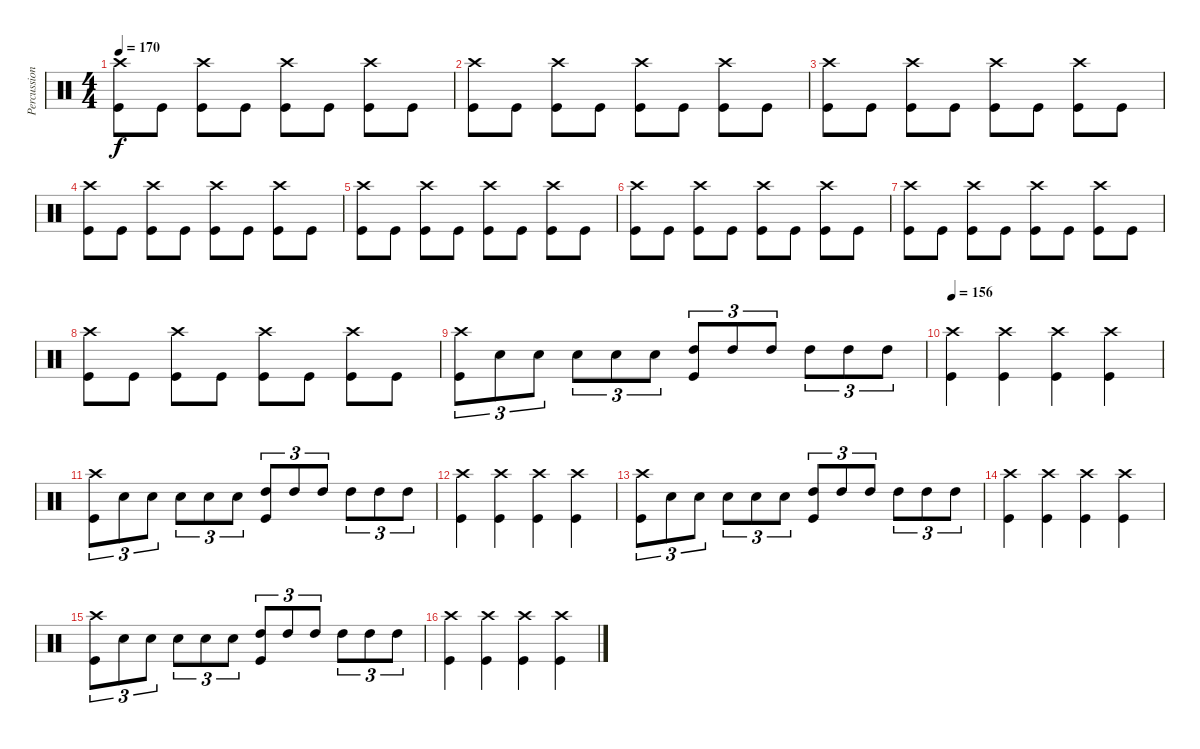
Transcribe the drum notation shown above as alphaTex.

\track ("Percussion" "Percussion") {instrument percussion}
\staff {score}
\articulation defaults
\ts (4 4)
\tempo 170
\clef neutral
\ks c
("Crash high (hit)" "Kick (hit)").8{dy f} "Kick (hit)".8 ("Crash high (hit)" "Kick (hit)").8 "Kick (hit)".8 ("Crash high (hit)" "Kick (hit)").8 "Kick (hit)".8 ("Crash high (hit)" "Kick (hit)").8 "Kick (hit)".8 |
("Crash high (hit)" "Kick (hit)").8 "Kick (hit)".8 ("Crash high (hit)" "Kick (hit)").8 "Kick (hit)".8 ("Crash high (hit)" "Kick (hit)").8 "Kick (hit)".8 ("Crash high (hit)" "Kick (hit)").8 "Kick (hit)".8 |
("Crash high (hit)" "Kick (hit)").8 "Kick (hit)".8 ("Crash high (hit)" "Kick (hit)").8 "Kick (hit)".8 ("Crash high (hit)" "Kick (hit)").8 "Kick (hit)".8 ("Crash high (hit)" "Kick (hit)").8 "Kick (hit)".8 |
("Crash high (hit)" "Kick (hit)").8 "Kick (hit)".8 ("Crash high (hit)" "Kick (hit)").8 "Kick (hit)".8 ("Crash high (hit)" "Kick (hit)").8 "Kick (hit)".8 ("Crash high (hit)" "Kick (hit)").8 "Kick (hit)".8 |
("Crash high (hit)" "Kick (hit)").8 "Kick (hit)".8 ("Crash high (hit)" "Kick (hit)").8 "Kick (hit)".8 ("Crash high (hit)" "Kick (hit)").8 "Kick (hit)".8 ("Crash high (hit)" "Kick (hit)").8 "Kick (hit)".8 |
("Crash high (hit)" "Kick (hit)").8 "Kick (hit)".8 ("Crash high (hit)" "Kick (hit)").8 "Kick (hit)".8 ("Crash high (hit)" "Kick (hit)").8 "Kick (hit)".8 ("Crash high (hit)" "Kick (hit)").8 "Kick (hit)".8 |
("Crash high (hit)" "Kick (hit)").8 "Kick (hit)".8 ("Crash high (hit)" "Kick (hit)").8 "Kick (hit)".8 ("Crash high (hit)" "Kick (hit)").8 "Kick (hit)".8 ("Crash high (hit)" "Kick (hit)").8 "Kick (hit)".8 |
("Crash high (hit)" "Kick (hit)").8 "Kick (hit)".8 ("Crash high (hit)" "Kick (hit)").8 "Kick (hit)".8 ("Crash high (hit)" "Kick (hit)").8 "Kick (hit)".8 ("Crash high (hit)" "Kick (hit)").8 "Kick (hit)".8 |
("Crash high (hit)" "Kick (hit)").8{tu (3 2)} "Snare (hit) 2".8{tu (3 2)} "Snare (hit) 2".8{tu (3 2)} "Snare (hit) 2".8{tu (3 2)} "Snare (hit) 2".8{tu (3 2)} "Snare (hit) 2".8{tu (3 2)} ("High Tom (hit)" "Kick (hit)").8{tu (3 2)} "High Tom (hit)".8{tu (3 2)} "High Tom (hit)".8{tu (3 2)} "High Tom (hit)".8{tu (3 2)} "High Tom (hit)".8{tu (3 2)} "High Tom (hit)".8{tu (3 2)} |
\tempo 156
("Crash high (hit)" "Kick (hit)").4 ("Crash high (hit)" "Kick (hit)").4 ("Crash high (hit)" "Kick (hit)").4 ("Crash high (hit)" "Kick (hit)").4 |
("Crash high (hit)" "Kick (hit)").8{tu (3 2)} "Snare (hit) 2".8{tu (3 2)} "Snare (hit) 2".8{tu (3 2)} "Snare (hit) 2".8{tu (3 2)} "Snare (hit) 2".8{tu (3 2)} "Snare (hit) 2".8{tu (3 2)} ("High Tom (hit)" "Kick (hit)").8{tu (3 2)} "High Tom (hit)".8{tu (3 2)} "High Tom (hit)".8{tu (3 2)} "High Tom (hit)".8{tu (3 2)} "High Tom (hit)".8{tu (3 2)} "High Tom (hit)".8{tu (3 2)} |
("Crash high (hit)" "Kick (hit)").4 ("Crash high (hit)" "Kick (hit)").4 ("Crash high (hit)" "Kick (hit)").4 ("Crash high (hit)" "Kick (hit)").4 |
("Crash high (hit)" "Kick (hit)").8{tu (3 2)} "Snare (hit) 2".8{tu (3 2)} "Snare (hit) 2".8{tu (3 2)} "Snare (hit) 2".8{tu (3 2)} "Snare (hit) 2".8{tu (3 2)} "Snare (hit) 2".8{tu (3 2)} ("High Tom (hit)" "Kick (hit)").8{tu (3 2)} "High Tom (hit)".8{tu (3 2)} "High Tom (hit)".8{tu (3 2)} "High Tom (hit)".8{tu (3 2)} "High Tom (hit)".8{tu (3 2)} "High Tom (hit)".8{tu (3 2)} |
("Crash high (hit)" "Kick (hit)").4 ("Crash high (hit)" "Kick (hit)").4 ("Crash high (hit)" "Kick (hit)").4 ("Crash high (hit)" "Kick (hit)").4 |
("Crash high (hit)" "Kick (hit)").8{tu (3 2)} "Snare (hit) 2".8{tu (3 2)} "Snare (hit) 2".8{tu (3 2)} "Snare (hit) 2".8{tu (3 2)} "Snare (hit) 2".8{tu (3 2)} "Snare (hit) 2".8{tu (3 2)} ("High Tom (hit)" "Kick (hit)").8{tu (3 2)} "High Tom (hit)".8{tu (3 2)} "High Tom (hit)".8{tu (3 2)} "High Tom (hit)".8{tu (3 2)} "High Tom (hit)".8{tu (3 2)} "High Tom (hit)".8{tu (3 2)} |
("Crash high (hit)" "Kick (hit)").4 ("Crash high (hit)" "Kick (hit)").4 ("Crash high (hit)" "Kick (hit)").4 ("Crash high (hit)" "Kick (hit)").4
